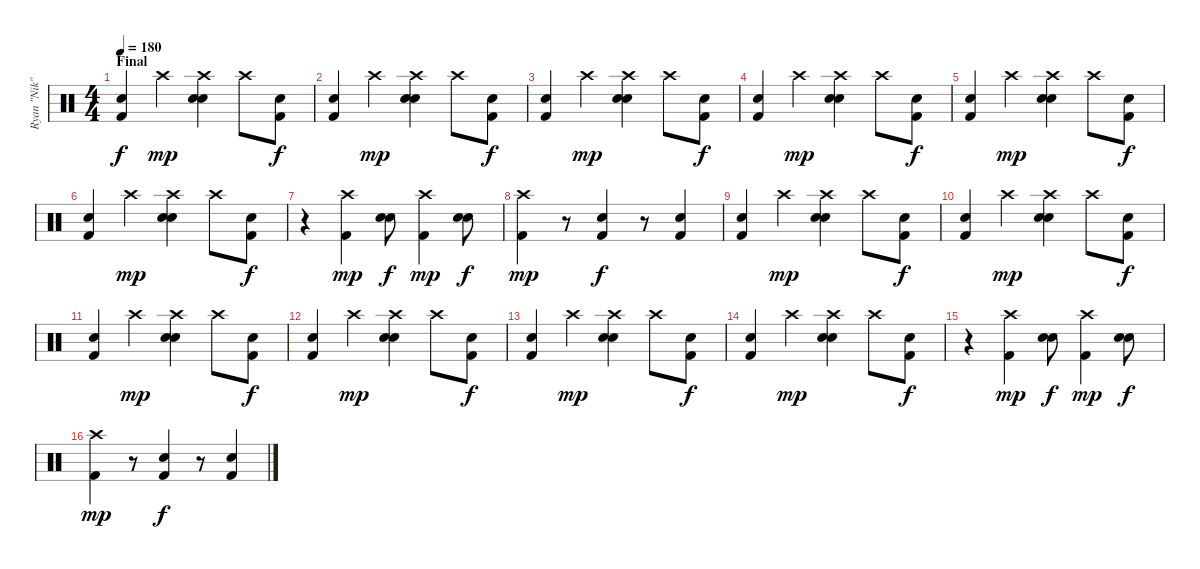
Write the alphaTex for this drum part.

\track ("Ryan \"Nik\"" "Ryan \"Nik\"") {instrument percussion}
\staff {score}
\articulation defaults
\ts (4 4)
\section ("" "Final")
\tempo 180
\clef neutral
\ks c
("Electric Snare (hit)" "Kick (hit) 2").4{dy f} "Crash high (hit)".4{dy mp} ("Crash high (hit)" "Electric Snare (hit)" "Electric Snare (hit)").4 "Crash high (hit)".8 ("Kick (hit) 2" "Electric Snare (hit)").8{dy f} |
("Electric Snare (hit)" "Kick (hit) 2").4 "Crash high (hit)".4{dy mp} ("Crash high (hit)" "Electric Snare (hit)" "Electric Snare (hit)").4 "Crash high (hit)".8 ("Kick (hit) 2" "Electric Snare (hit)").8{dy f} |
("Electric Snare (hit)" "Kick (hit) 2").4 "Crash high (hit)".4{dy mp} ("Crash high (hit)" "Electric Snare (hit)" "Electric Snare (hit)").4 "Crash high (hit)".8 ("Kick (hit) 2" "Electric Snare (hit)").8{dy f} |
("Electric Snare (hit)" "Kick (hit) 2").4 "Crash high (hit)".4{dy mp} ("Crash high (hit)" "Electric Snare (hit)" "Electric Snare (hit)").4 "Crash high (hit)".8 ("Kick (hit) 2" "Electric Snare (hit)").8{dy f} |
("Electric Snare (hit)" "Kick (hit) 2").4 "Crash high (hit)".4{dy mp} ("Crash high (hit)" "Electric Snare (hit)" "Electric Snare (hit)").4 "Crash high (hit)".8 ("Kick (hit) 2" "Electric Snare (hit)").8{dy f} |
("Electric Snare (hit)" "Kick (hit) 2").4 "Crash high (hit)".4{dy mp} ("Crash high (hit)" "Electric Snare (hit)" "Electric Snare (hit)").4 "Crash high (hit)".8 ("Kick (hit) 2" "Electric Snare (hit)").8{dy f} |
r.4 ("Crash high (hit)" "Kick (hit) 2").4{dy mp} ("Electric Snare (hit)" "Electric Snare (hit)").8{dy f} ("Crash high (hit)" "Kick (hit) 2").4{dy mp} ("Electric Snare (hit)" "Electric Snare (hit)").8{dy f} |
("Crash high (hit)" "Kick (hit) 2").4{dy mp} r.8 ("Electric Snare (hit)" "Kick (hit) 2").4{dy f} r.8 ("Electric Snare (hit)" "Kick (hit) 2").4 |
("Electric Snare (hit)" "Kick (hit) 2").4 "Crash high (hit)".4{dy mp} ("Crash high (hit)" "Electric Snare (hit)" "Electric Snare (hit)").4 "Crash high (hit)".8 ("Kick (hit) 2" "Electric Snare (hit)").8{dy f} |
("Electric Snare (hit)" "Kick (hit) 2").4 "Crash high (hit)".4{dy mp} ("Crash high (hit)" "Electric Snare (hit)" "Electric Snare (hit)").4 "Crash high (hit)".8 ("Kick (hit) 2" "Electric Snare (hit)").8{dy f} |
("Electric Snare (hit)" "Kick (hit) 2").4 "Crash high (hit)".4{dy mp} ("Crash high (hit)" "Electric Snare (hit)" "Electric Snare (hit)").4 "Crash high (hit)".8 ("Kick (hit) 2" "Electric Snare (hit)").8{dy f} |
("Electric Snare (hit)" "Kick (hit) 2").4 "Crash high (hit)".4{dy mp} ("Crash high (hit)" "Electric Snare (hit)" "Electric Snare (hit)").4 "Crash high (hit)".8 ("Kick (hit) 2" "Electric Snare (hit)").8{dy f} |
("Electric Snare (hit)" "Kick (hit) 2").4 "Crash high (hit)".4{dy mp} ("Crash high (hit)" "Electric Snare (hit)" "Electric Snare (hit)").4 "Crash high (hit)".8 ("Kick (hit) 2" "Electric Snare (hit)").8{dy f} |
("Electric Snare (hit)" "Kick (hit) 2").4 "Crash high (hit)".4{dy mp} ("Crash high (hit)" "Electric Snare (hit)" "Electric Snare (hit)").4 "Crash high (hit)".8 ("Kick (hit) 2" "Electric Snare (hit)").8{dy f} |
r.4 ("Crash high (hit)" "Kick (hit) 2").4{dy mp} ("Electric Snare (hit)" "Electric Snare (hit)").8{dy f} ("Crash high (hit)" "Kick (hit) 2").4{dy mp} ("Electric Snare (hit)" "Electric Snare (hit)").8{dy f} |
("Crash high (hit)" "Kick (hit) 2").4{dy mp} r.8 ("Electric Snare (hit)" "Kick (hit) 2").4{dy f} r.8 ("Electric Snare (hit)" "Kick (hit) 2").4
